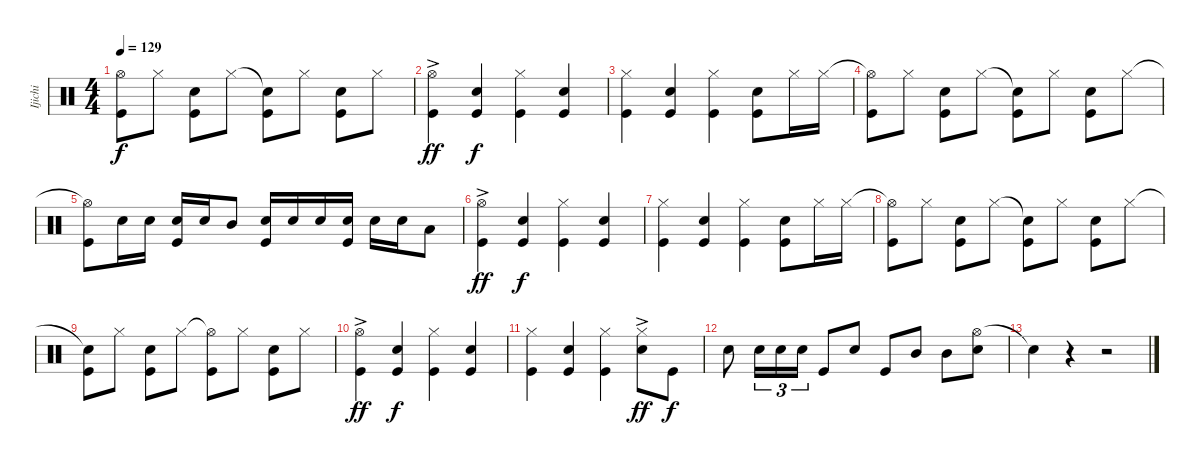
\track ("Ijichi" "Ijichi") {instrument percussion}
\staff {score}
\articulation defaults
\ts (4 4)
\tempo 129
\clef neutral
\ks c
("Hi-Hat (open)"{t} "Kick (hit)").8{dy f} "Hi-Hat (closed)".8 ("Snare (hit) 2" "Kick (hit)").8 "Hi-Hat (closed)".8 ("Snare (hit)"{t} "Kick (hit)").8 "Hi-Hat (closed)".8 ("Snare (hit) 2" "Kick (hit)").8 "Hi-Hat (closed)".8 |
("Hi-Hat (open)"{ac} "Kick (hit)").4{dy ff} ("Snare (hit) 2" "Kick (hit)").4{dy f} ("Hi-Hat (closed)" "Kick (hit)").4 ("Snare (hit) 2" "Kick (hit)").4 |
("Hi-Hat (closed)" "Kick (hit)").4 ("Snare (hit) 2" "Kick (hit)").4 ("Hi-Hat (closed)" "Kick (hit)").4 ("Snare (hit) 2" "Kick (hit)").8 "Hi-Hat (closed)".16 "Hi-Hat (closed)".16 |
("Hi-Hat (open)"{t} "Kick (hit)").8 "Hi-Hat (closed)".8 ("Snare (hit) 2" "Kick (hit)").8 "Hi-Hat (closed)".8 ("Snare (hit)"{t} "Kick (hit)").8 "Hi-Hat (closed)".8 ("Snare (hit) 2" "Kick (hit)").8 "Hi-Hat (closed)".8 |
("Hi-Hat (open)"{t} "Kick (hit)").8 "Snare (hit) 2".16 "Snare (hit) 2".16 ("Snare (hit) 2" "Kick (hit)").16 "Snare (hit) 2".16 "Mid Tom (hit)".8 ("Snare (hit) 2" "Kick (hit)").16 "Snare (hit) 2".16 "Snare (hit) 2".16 ("Snare (hit) 2" "Kick (hit)").16 "Snare (hit) 2".16 "Snare (hit) 2".16 "Low Tom (hit)".8 |
("Hi-Hat (open)"{ac} "Kick (hit)").4{dy ff} ("Snare (hit) 2" "Kick (hit)").4{dy f} ("Hi-Hat (closed)" "Kick (hit)").4 ("Snare (hit) 2" "Kick (hit)").4 |
("Hi-Hat (closed)" "Kick (hit)").4 ("Snare (hit) 2" "Kick (hit)").4 ("Hi-Hat (closed)" "Kick (hit)").4 ("Snare (hit) 2" "Kick (hit)").8 "Hi-Hat (closed)".16 "Hi-Hat (closed)".16 |
("Hi-Hat (open)"{t} "Kick (hit)").8 "Hi-Hat (closed)".8 ("Snare (hit) 2" "Kick (hit)").8 "Hi-Hat (closed)".8 ("Snare (hit)"{t} "Kick (hit)").8 "Hi-Hat (closed)".8 ("Snare (hit) 2" "Kick (hit)").8 "Hi-Hat (closed)".8 |
("Snare (hit)"{t} "Kick (hit)").8 "Hi-Hat (closed)".8 ("Snare (hit) 2" "Kick (hit)").8 "Hi-Hat (closed)".8 ("Hi-Hat (open)"{t} "Kick (hit)").8 "Hi-Hat (closed)".8 ("Snare (hit) 2" "Kick (hit)").8 "Hi-Hat (closed)".8 |
("Hi-Hat (open)"{ac} "Kick (hit)").4{dy ff} ("Snare (hit) 2" "Kick (hit)").4{dy f} ("Hi-Hat (closed)" "Kick (hit)").4 ("Snare (hit) 2" "Kick (hit)").4 |
("Hi-Hat (closed)" "Kick (hit)").4 ("Snare (hit) 2" "Kick (hit)").4 ("Hi-Hat (closed)" "Kick (hit)").4 ("Hi-Hat (closed)"{ac} "Snare (hit) 2").8{dy ff} "Kick (hit)".8{dy f} |
"Snare (hit) 2".8 "Snare (hit) 2".16{tu (3 2)} "Snare (hit) 2".16{tu (3 2)} "Snare (hit) 2".16{tu (3 2)} "Kick (hit)".8 "Snare (hit) 2".8 "Kick (hit)".8 "Mid Tom (hit)".8 "Mid Tom (hit)".8 ("Hi-Hat (open)" "Snare (hit) 2").8 |
"Snare (hit)"{t}.4 r.4 r.2
